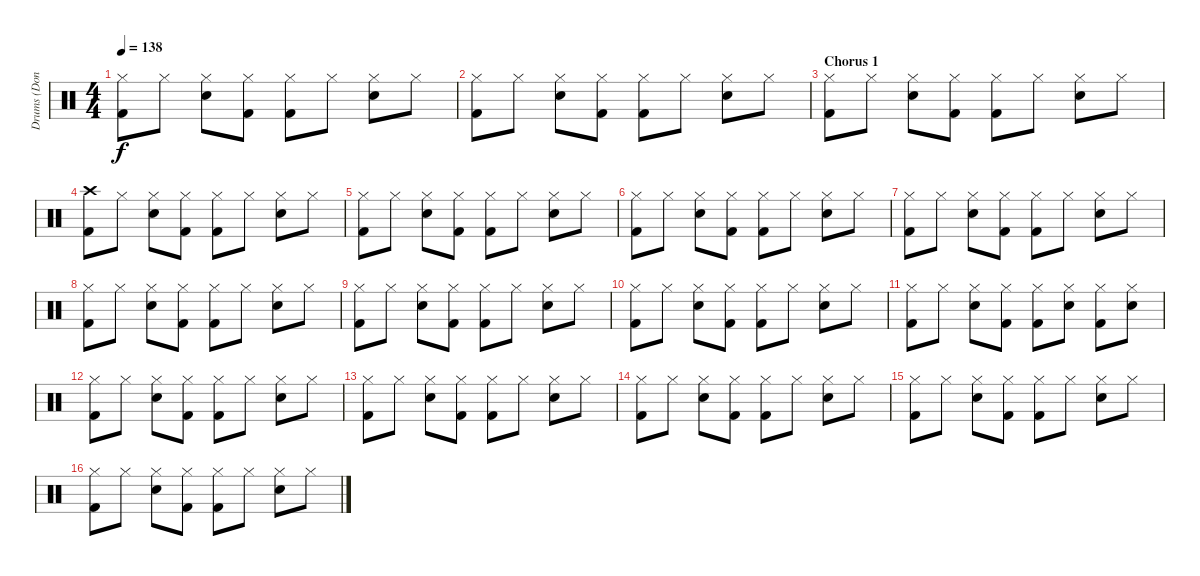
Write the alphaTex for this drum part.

\track ("Drums (Don Henley)" "Drums (Don") {instrument percussion}
\staff {score}
\articulation defaults
\ts (4 4)
\tempo 138
\clef neutral
\ks c
("Hi-Hat (closed)" "Kick (hit) 2").8{dy f} "Hi-Hat (closed)".8 ("Hi-Hat (closed)" "Snare (hit) 2").8 ("Hi-Hat (closed)" "Kick (hit) 2").8 ("Hi-Hat (closed)" "Kick (hit) 2").8 "Hi-Hat (closed)".8 ("Hi-Hat (closed)" "Snare (hit) 2").8 "Hi-Hat (closed)".8 |
("Hi-Hat (closed)" "Kick (hit) 2").8 "Hi-Hat (closed)".8 ("Hi-Hat (closed)" "Snare (hit) 2").8 ("Hi-Hat (closed)" "Kick (hit) 2").8 ("Hi-Hat (closed)" "Kick (hit) 2").8 "Hi-Hat (closed)".8 ("Hi-Hat (closed)" "Snare (hit) 2").8 "Hi-Hat (closed)".8 |
\section ("" "Chorus 1")
("Hi-Hat (closed)" "Kick (hit) 2").8 "Hi-Hat (closed)".8 ("Hi-Hat (closed)" "Snare (hit) 2").8 ("Hi-Hat (closed)" "Kick (hit) 2").8 ("Hi-Hat (closed)" "Kick (hit) 2").8 "Hi-Hat (closed)".8 ("Hi-Hat (closed)" "Snare (hit) 2").8 "Hi-Hat (closed)".8 |
("Crash high (hit)" "Kick (hit) 2").8 "Hi-Hat (closed)".8 ("Hi-Hat (closed)" "Snare (hit) 2").8 ("Hi-Hat (closed)" "Kick (hit) 2").8 ("Hi-Hat (closed)" "Kick (hit) 2").8 "Hi-Hat (closed)".8 ("Hi-Hat (closed)" "Snare (hit) 2").8 "Hi-Hat (closed)".8 |
("Hi-Hat (closed)" "Kick (hit) 2").8 "Hi-Hat (closed)".8 ("Hi-Hat (closed)" "Snare (hit) 2").8 ("Hi-Hat (closed)" "Kick (hit) 2").8 ("Hi-Hat (closed)" "Kick (hit) 2").8 "Hi-Hat (closed)".8 ("Hi-Hat (closed)" "Snare (hit) 2").8 "Hi-Hat (closed)".8 |
("Hi-Hat (closed)" "Kick (hit) 2").8 "Hi-Hat (closed)".8 ("Hi-Hat (closed)" "Snare (hit) 2").8 ("Hi-Hat (closed)" "Kick (hit) 2").8 ("Hi-Hat (closed)" "Kick (hit) 2").8 "Hi-Hat (closed)".8 ("Hi-Hat (closed)" "Snare (hit) 2").8 "Hi-Hat (closed)".8 |
("Hi-Hat (closed)" "Kick (hit) 2").8 "Hi-Hat (closed)".8 ("Hi-Hat (closed)" "Snare (hit) 2").8 ("Hi-Hat (closed)" "Kick (hit) 2").8 ("Hi-Hat (closed)" "Kick (hit) 2").8 "Hi-Hat (closed)".8 ("Hi-Hat (closed)" "Snare (hit) 2").8 "Hi-Hat (closed)".8 |
("Hi-Hat (closed)" "Kick (hit) 2").8 "Hi-Hat (closed)".8 ("Hi-Hat (closed)" "Snare (hit) 2").8 ("Hi-Hat (closed)" "Kick (hit) 2").8 ("Hi-Hat (closed)" "Kick (hit) 2").8 "Hi-Hat (closed)".8 ("Hi-Hat (closed)" "Snare (hit) 2").8 "Hi-Hat (closed)".8 |
("Hi-Hat (closed)" "Kick (hit) 2").8 "Hi-Hat (closed)".8 ("Hi-Hat (closed)" "Snare (hit) 2").8 ("Hi-Hat (closed)" "Kick (hit) 2").8 ("Hi-Hat (closed)" "Kick (hit) 2").8 "Hi-Hat (closed)".8 ("Hi-Hat (closed)" "Snare (hit) 2").8 "Hi-Hat (closed)".8 |
("Hi-Hat (closed)" "Kick (hit) 2").8 "Hi-Hat (closed)".8 ("Hi-Hat (closed)" "Snare (hit) 2").8 ("Hi-Hat (closed)" "Kick (hit) 2").8 ("Hi-Hat (closed)" "Kick (hit) 2").8 "Hi-Hat (closed)".8 ("Hi-Hat (closed)" "Snare (hit) 2").8 "Hi-Hat (closed)".8 |
("Hi-Hat (closed)" "Kick (hit) 2").8 "Hi-Hat (closed)".8 ("Hi-Hat (closed)" "Snare (hit) 2").8 ("Hi-Hat (closed)" "Kick (hit) 2").8 ("Hi-Hat (closed)" "Kick (hit) 2").8 ("Hi-Hat (closed)" "Snare (hit) 2").8 ("Hi-Hat (closed)" "Kick (hit) 2").8 ("Hi-Hat (closed)" "Snare (hit) 2").8 |
("Hi-Hat (closed)" "Kick (hit) 2").8 "Hi-Hat (closed)".8 ("Hi-Hat (closed)" "Snare (hit) 2").8 ("Hi-Hat (closed)" "Kick (hit) 2").8 ("Hi-Hat (closed)" "Kick (hit) 2").8 "Hi-Hat (closed)".8 ("Hi-Hat (closed)" "Snare (hit) 2").8 "Hi-Hat (closed)".8 |
("Hi-Hat (closed)" "Kick (hit) 2").8 "Hi-Hat (closed)".8 ("Hi-Hat (closed)" "Snare (hit) 2").8 ("Hi-Hat (closed)" "Kick (hit) 2").8 ("Hi-Hat (closed)" "Kick (hit) 2").8 "Hi-Hat (closed)".8 ("Hi-Hat (closed)" "Snare (hit) 2").8 "Hi-Hat (closed)".8 |
("Hi-Hat (closed)" "Kick (hit) 2").8 "Hi-Hat (closed)".8 ("Hi-Hat (closed)" "Snare (hit) 2").8 ("Hi-Hat (closed)" "Kick (hit) 2").8 ("Hi-Hat (closed)" "Kick (hit) 2").8 "Hi-Hat (closed)".8 ("Hi-Hat (closed)" "Snare (hit) 2").8 "Hi-Hat (closed)".8 |
("Hi-Hat (closed)" "Kick (hit) 2").8 "Hi-Hat (closed)".8 ("Hi-Hat (closed)" "Snare (hit) 2").8 ("Hi-Hat (closed)" "Kick (hit) 2").8 ("Hi-Hat (closed)" "Kick (hit) 2").8 "Hi-Hat (closed)".8 ("Hi-Hat (closed)" "Snare (hit) 2").8 "Hi-Hat (closed)".8 |
("Hi-Hat (closed)" "Kick (hit) 2").8 "Hi-Hat (closed)".8 ("Hi-Hat (closed)" "Snare (hit) 2").8 ("Hi-Hat (closed)" "Kick (hit) 2").8 ("Hi-Hat (closed)" "Kick (hit) 2").8 "Hi-Hat (closed)".8 ("Hi-Hat (closed)" "Snare (hit) 2").8 "Hi-Hat (closed)".8
